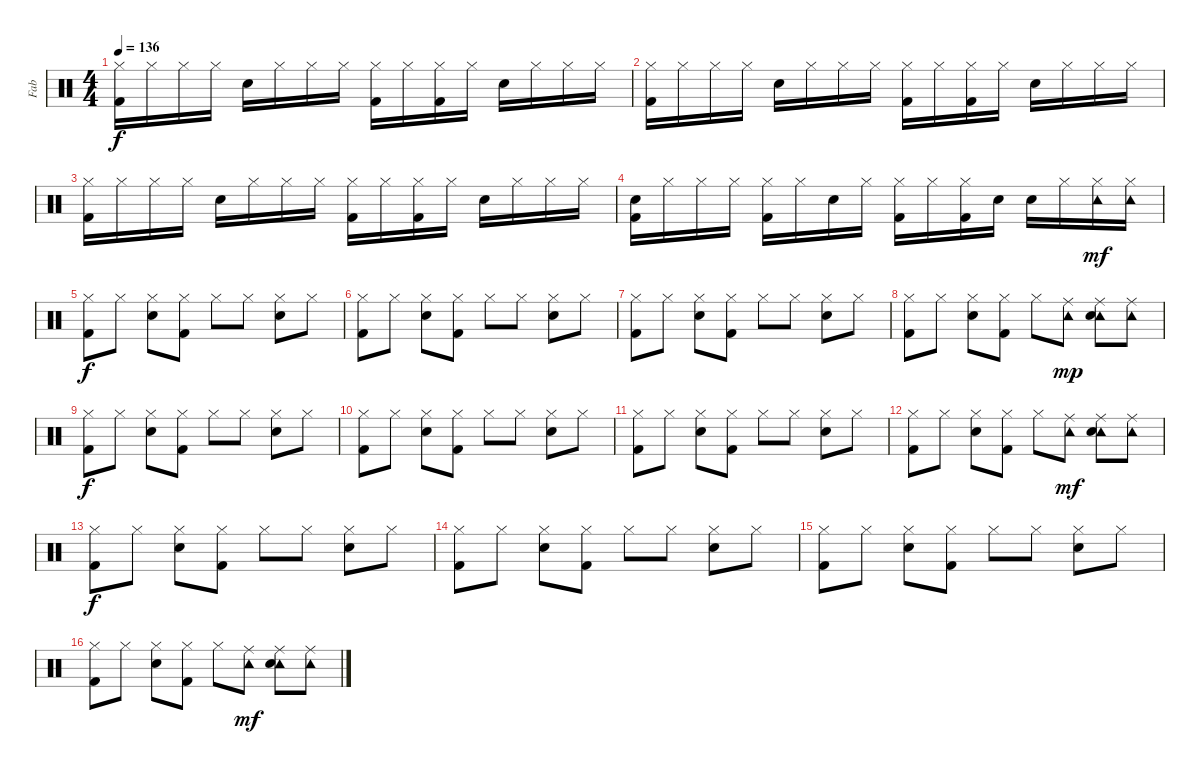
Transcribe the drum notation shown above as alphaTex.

\track ("Fab" "Fab") {instrument percussion}
\staff {score}
\articulation defaults
\ts (4 4)
\tempo 136
\clef neutral
\ks c
("Hi-Hat (closed)" "Kick (hit) 2").16{dy f} "Hi-Hat (closed)".16 "Hi-Hat (closed)".16 "Hi-Hat (closed)".16 "Snare (hit) 2".16 "Hi-Hat (closed)".16 "Hi-Hat (closed)".16 "Hi-Hat (closed)".16 ("Hi-Hat (closed)" "Kick (hit) 2").16 "Hi-Hat (closed)".16 ("Hi-Hat (closed)" "Kick (hit) 2").16 "Hi-Hat (closed)".16 "Snare (hit) 2".16 "Hi-Hat (closed)".16 "Hi-Hat (closed)".16 "Hi-Hat (closed)".16 |
("Hi-Hat (closed)" "Kick (hit) 2").16 "Hi-Hat (closed)".16 "Hi-Hat (closed)".16 "Hi-Hat (closed)".16 "Snare (hit) 2".16 "Hi-Hat (closed)".16 "Hi-Hat (closed)".16 "Hi-Hat (closed)".16 ("Hi-Hat (closed)" "Kick (hit) 2").16 "Hi-Hat (closed)".16 ("Hi-Hat (closed)" "Kick (hit) 2").16 "Hi-Hat (closed)".16 "Snare (hit) 2".16 "Hi-Hat (closed)".16 "Hi-Hat (closed)".16 "Hi-Hat (closed)".16 |
("Hi-Hat (closed)" "Kick (hit) 2").16 "Hi-Hat (closed)".16 "Hi-Hat (closed)".16 "Hi-Hat (closed)".16 "Snare (hit) 2".16 "Hi-Hat (closed)".16 "Hi-Hat (closed)".16 "Hi-Hat (closed)".16 ("Hi-Hat (closed)" "Kick (hit) 2").16 "Hi-Hat (closed)".16 ("Hi-Hat (closed)" "Kick (hit) 2").16 "Hi-Hat (closed)".16 "Snare (hit) 2".16 "Hi-Hat (closed)".16 "Hi-Hat (closed)".16 "Hi-Hat (closed)".16 |
("Snare (hit) 2" "Kick (hit) 2").16 "Hi-Hat (closed)".16 "Hi-Hat (closed)".16 "Hi-Hat (closed)".16 ("Hi-Hat (closed)" "Kick (hit) 2").16 "Hi-Hat (closed)".16 "Snare (hit) 2".16 "Hi-Hat (closed)".16 ("Hi-Hat (closed)" "Kick (hit) 2").16 "Hi-Hat (closed)".16 ("Hi-Hat (closed)" "Kick (hit) 2").16 "Snare (hit) 2".16 "Snare (hit) 2".16 "Hi-Hat (closed)".16 ("Tambourine (hit)" "Hi-Hat (closed)").16{dy mf} ("Tambourine (hit)" "Hi-Hat (closed)").16 |
("Hi-Hat (closed)" "Kick (hit) 2").8{dy f} "Hi-Hat (closed)".8 ("Hi-Hat (closed)" "Snare (hit) 2").8 ("Hi-Hat (closed)" "Kick (hit) 2").8 "Hi-Hat (closed)".8 "Hi-Hat (closed)".8 ("Hi-Hat (closed)" "Snare (hit) 2").8 "Hi-Hat (closed)".8 |
("Hi-Hat (closed)" "Kick (hit) 2").8 "Hi-Hat (closed)".8 ("Hi-Hat (closed)" "Snare (hit) 2").8 ("Hi-Hat (closed)" "Kick (hit) 2").8 "Hi-Hat (closed)".8 "Hi-Hat (closed)".8 ("Hi-Hat (closed)" "Snare (hit) 2").8 "Hi-Hat (closed)".8 |
("Hi-Hat (closed)" "Kick (hit) 2").8 "Hi-Hat (closed)".8 ("Hi-Hat (closed)" "Snare (hit) 2").8 ("Hi-Hat (closed)" "Kick (hit) 2").8 "Hi-Hat (closed)".8 "Hi-Hat (closed)".8 ("Hi-Hat (closed)" "Snare (hit) 2").8 "Hi-Hat (closed)".8 |
("Hi-Hat (closed)" "Kick (hit) 2").8 "Hi-Hat (closed)".8 ("Hi-Hat (closed)" "Snare (hit) 2").8 ("Hi-Hat (closed)" "Kick (hit) 2").8 "Hi-Hat (closed)".8 ("Tambourine (hit)" "Ride (middle)").8{dy mp} ("Tambourine (hit)" "Ride (middle)" "Snare (hit) 2").8 ("Tambourine (hit)" "Ride (middle)").8 |
("Hi-Hat (closed)" "Kick (hit) 2").8{dy f} "Hi-Hat (closed)".8 ("Hi-Hat (closed)" "Snare (hit) 2").8 ("Hi-Hat (closed)" "Kick (hit) 2").8 "Hi-Hat (closed)".8 "Hi-Hat (closed)".8 ("Hi-Hat (closed)" "Snare (hit) 2").8 "Hi-Hat (closed)".8 |
("Hi-Hat (closed)" "Kick (hit) 2").8 "Hi-Hat (closed)".8 ("Hi-Hat (closed)" "Snare (hit) 2").8 ("Hi-Hat (closed)" "Kick (hit) 2").8 "Hi-Hat (closed)".8 "Hi-Hat (closed)".8 ("Hi-Hat (closed)" "Snare (hit) 2").8 "Hi-Hat (closed)".8 |
("Hi-Hat (closed)" "Kick (hit) 2").8 "Hi-Hat (closed)".8 ("Hi-Hat (closed)" "Snare (hit) 2").8 ("Hi-Hat (closed)" "Kick (hit) 2").8 "Hi-Hat (closed)".8 "Hi-Hat (closed)".8 ("Hi-Hat (closed)" "Snare (hit) 2").8 "Hi-Hat (closed)".8 |
("Hi-Hat (closed)" "Kick (hit) 2").8 "Hi-Hat (closed)".8 ("Hi-Hat (closed)" "Snare (hit) 2").8 ("Hi-Hat (closed)" "Kick (hit) 2").8 "Hi-Hat (closed)".8 ("Tambourine (hit)" "Ride (middle)").8{dy mf} ("Tambourine (hit)" "Ride (middle)" "Snare (hit) 2").8 ("Tambourine (hit)" "Ride (middle)").8 |
("Hi-Hat (closed)" "Kick (hit) 2").8{dy f} "Hi-Hat (closed)".8 ("Hi-Hat (closed)" "Snare (hit) 2").8 ("Hi-Hat (closed)" "Kick (hit) 2").8 "Hi-Hat (closed)".8 "Hi-Hat (closed)".8 ("Hi-Hat (closed)" "Snare (hit) 2").8 "Hi-Hat (closed)".8 |
("Hi-Hat (closed)" "Kick (hit) 2").8 "Hi-Hat (closed)".8 ("Hi-Hat (closed)" "Snare (hit) 2").8 ("Hi-Hat (closed)" "Kick (hit) 2").8 "Hi-Hat (closed)".8 "Hi-Hat (closed)".8 ("Hi-Hat (closed)" "Snare (hit) 2").8 "Hi-Hat (closed)".8 |
("Hi-Hat (closed)" "Kick (hit) 2").8 "Hi-Hat (closed)".8 ("Hi-Hat (closed)" "Snare (hit) 2").8 ("Hi-Hat (closed)" "Kick (hit) 2").8 "Hi-Hat (closed)".8 "Hi-Hat (closed)".8 ("Hi-Hat (closed)" "Snare (hit) 2").8 "Hi-Hat (closed)".8 |
("Hi-Hat (closed)" "Kick (hit) 2").8 "Hi-Hat (closed)".8 ("Hi-Hat (closed)" "Snare (hit) 2").8 ("Hi-Hat (closed)" "Kick (hit) 2").8 "Hi-Hat (closed)".8 ("Tambourine (hit)" "Ride (middle)").8{dy mf} ("Tambourine (hit)" "Ride (middle)" "Snare (hit) 2").8 ("Tambourine (hit)" "Ride (middle)").8
